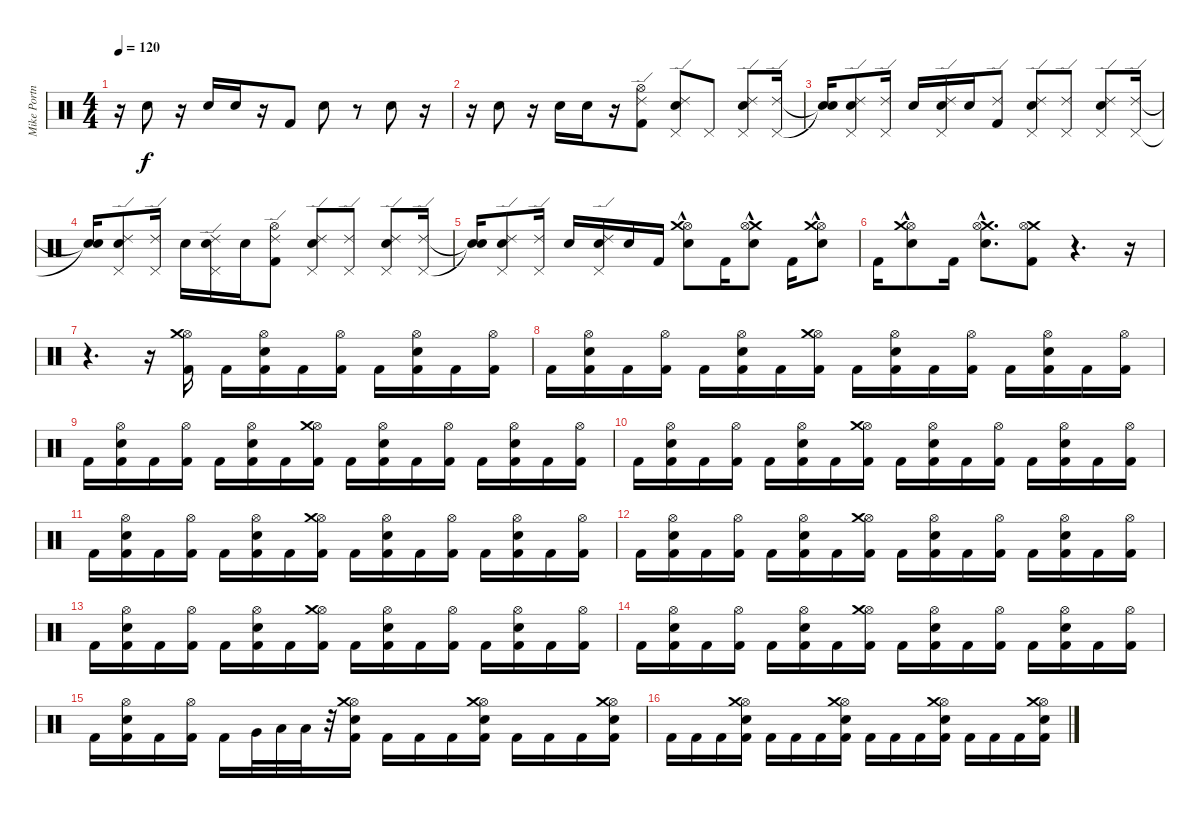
\track ("Mike Portnoy - Batterie" "Mike Portn") {instrument percussion}
\staff {score}
\articulation defaults
\ts (4 4)
\tempo 120
\clef neutral
\ks c
r.16{dy f} "Snare (hit) 2".8 r.16 "Snare (hit) 2".16 "Snare (hit) 2".16 r.16 "Kick (hit) 2".8 "Snare (hit) 2".8 r.8 "Snare (hit) 2".8 r.16 |
r.16 "Snare (hit) 2".8 r.16 "Snare (hit) 2".16 "Snare (hit) 2".16 r.16 ("Ride (edge) 2" "Kick (hit) 2" "Hi-Hat (open)").8 ("Pedal Hi-Hat (hit)" "Ride (edge) 2" "Snare (hit) 2").8 "Pedal Hi-Hat (hit)".8 ("Pedal Hi-Hat (hit)" "Ride (edge) 2" "Snare (hit) 2").8 ("Pedal Hi-Hat (hit)" "Ride (edge) 2").16 |
("Snare (hit)"{t} "Snare (hit)"{t}).16 ("Pedal Hi-Hat (hit)" "Ride (edge) 2" "Snare (hit) 2").8 ("Pedal Hi-Hat (hit)" "Ride (edge) 2").16 "Snare (hit) 2".16 ("Snare (hit) 2" "Pedal Hi-Hat (hit)" "Ride (edge) 2").16 "Snare (hit) 2".16 ("Ride (edge) 2" "Kick (hit) 2").8 ("Pedal Hi-Hat (hit)" "Ride (edge) 2" "Snare (hit) 2").8 ("Pedal Hi-Hat (hit)" "Ride (edge) 2").8 ("Pedal Hi-Hat (hit)" "Ride (edge) 2" "Snare (hit) 2").8 ("Pedal Hi-Hat (hit)" "Ride (edge) 2").16 |
("Snare (hit)"{t} "Snare (hit)"{t}).16 ("Pedal Hi-Hat (hit)" "Ride (edge) 2" "Snare (hit) 2").8 ("Pedal Hi-Hat (hit)" "Ride (edge) 2").16 "Snare (hit) 2".16 ("Snare (hit) 2" "Pedal Hi-Hat (hit)" "Ride (edge) 2").16 "Snare (hit) 2".16 ("Ride (edge) 2" "Kick (hit) 2" "Hi-Hat (open)").8 ("Pedal Hi-Hat (hit)" "Ride (edge) 2" "Snare (hit) 2").8 ("Pedal Hi-Hat (hit)" "Ride (edge) 2").8 ("Pedal Hi-Hat (hit)" "Ride (edge) 2" "Snare (hit) 2").8 ("Pedal Hi-Hat (hit)" "Ride (edge) 2").16 |
("Snare (hit)"{t} "Snare (hit)"{t}).16 ("Pedal Hi-Hat (hit)" "Ride (edge) 2" "Snare (hit) 2").8 ("Pedal Hi-Hat (hit)" "Ride (edge) 2").16 "Snare (hit) 2".16 ("Snare (hit) 2" "Pedal Hi-Hat (hit)" "Ride (edge) 2").16 "Snare (hit) 2".16 "Kick (hit) 2".16 ("Electric Snare (hit)"{hac} "Hi-Hat (open)"{hac} "Crash medium (hit)"{hac}).8 "Kick (hit) 2".16 ("Electric Snare (hit)"{hac} "Crash medium (hit)"{hac} "Hi-Hat (open)"{hac}).8 "Kick (hit) 2".16 ("Electric Snare (hit)"{hac} "Hi-Hat (open)"{hac} "Crash medium (hit)"{hac}).8 |
"Kick (hit) 2".16 ("Electric Snare (hit)"{hac} "Hi-Hat (open)"{hac} "Crash medium (hit)"{hac}).8 "Kick (hit) 2".16 ("Crash medium (hit)"{hac} "Hi-Hat (open)"{hac} "Electric Snare (hit)"{hac}).8{d} ("Crash medium (hit)" "Hi-Hat (open)" "Kick (hit) 2").8 r.4{d} r.16 |
r.4{d} r.16 ("Hi-Hat (open)" "Crash medium (hit)" "Kick (hit) 2").16 "Kick (hit) 2".16 ("Electric Snare (hit)" "Hi-Hat (open)" "Kick (hit) 2").16 "Kick (hit) 2".16 ("Hi-Hat (open)" "Kick (hit) 2").16 "Kick (hit) 2".16 ("Electric Snare (hit)" "Hi-Hat (open)" "Kick (hit) 2").16 "Kick (hit) 2".16 ("Hi-Hat (open)" "Kick (hit) 2").16 |
"Kick (hit) 2".16 ("Electric Snare (hit)" "Hi-Hat (open)" "Kick (hit) 2").16 "Kick (hit) 2".16 ("Hi-Hat (open)" "Kick (hit) 2").16 "Kick (hit) 2".16 ("Electric Snare (hit)" "Hi-Hat (open)" "Kick (hit) 2").16 "Kick (hit) 2".16 ("Hi-Hat (open)" "Crash medium (hit)" "Kick (hit) 2").16 "Kick (hit) 2".16 ("Electric Snare (hit)" "Hi-Hat (open)" "Kick (hit) 2").16 "Kick (hit) 2".16 ("Hi-Hat (open)" "Kick (hit) 2").16 "Kick (hit) 2".16 ("Electric Snare (hit)" "Hi-Hat (open)" "Kick (hit) 2").16 "Kick (hit) 2".16 ("Hi-Hat (open)" "Kick (hit) 2").16 |
"Kick (hit) 2".16 ("Electric Snare (hit)" "Hi-Hat (open)" "Kick (hit) 2").16 "Kick (hit) 2".16 ("Hi-Hat (open)" "Kick (hit) 2").16 "Kick (hit) 2".16 ("Electric Snare (hit)" "Hi-Hat (open)" "Kick (hit) 2").16 "Kick (hit) 2".16 ("Hi-Hat (open)" "Crash medium (hit)" "Kick (hit) 2").16 "Kick (hit) 2".16 ("Electric Snare (hit)" "Hi-Hat (open)" "Kick (hit) 2").16 "Kick (hit) 2".16 ("Hi-Hat (open)" "Kick (hit) 2").16 "Kick (hit) 2".16 ("Electric Snare (hit)" "Hi-Hat (open)" "Kick (hit) 2").16 "Kick (hit) 2".16 ("Hi-Hat (open)" "Kick (hit) 2").16 |
"Kick (hit) 2".16 ("Electric Snare (hit)" "Hi-Hat (open)" "Kick (hit) 2").16 "Kick (hit) 2".16 ("Hi-Hat (open)" "Kick (hit) 2").16 "Kick (hit) 2".16 ("Electric Snare (hit)" "Hi-Hat (open)" "Kick (hit) 2").16 "Kick (hit) 2".16 ("Hi-Hat (open)" "Crash medium (hit)" "Kick (hit) 2").16 "Kick (hit) 2".16 ("Electric Snare (hit)" "Hi-Hat (open)" "Kick (hit) 2").16 "Kick (hit) 2".16 ("Hi-Hat (open)" "Kick (hit) 2").16 "Kick (hit) 2".16 ("Electric Snare (hit)" "Hi-Hat (open)" "Kick (hit) 2").16 "Kick (hit) 2".16 ("Hi-Hat (open)" "Kick (hit) 2").16 |
"Kick (hit) 2".16 ("Electric Snare (hit)" "Hi-Hat (open)" "Kick (hit) 2").16 "Kick (hit) 2".16 ("Hi-Hat (open)" "Kick (hit) 2").16 "Kick (hit) 2".16 ("Electric Snare (hit)" "Hi-Hat (open)" "Kick (hit) 2").16 "Kick (hit) 2".16 ("Hi-Hat (open)" "Crash medium (hit)" "Kick (hit) 2").16 "Kick (hit) 2".16 ("Electric Snare (hit)" "Hi-Hat (open)" "Kick (hit) 2").16 "Kick (hit) 2".16 ("Hi-Hat (open)" "Kick (hit) 2").16 "Kick (hit) 2".16 ("Electric Snare (hit)" "Hi-Hat (open)" "Kick (hit) 2").16 "Kick (hit) 2".16 ("Hi-Hat (open)" "Kick (hit) 2").16 |
"Kick (hit) 2".16 ("Electric Snare (hit)" "Hi-Hat (open)" "Kick (hit) 2").16 "Kick (hit) 2".16 ("Hi-Hat (open)" "Kick (hit) 2").16 "Kick (hit) 2".16 ("Electric Snare (hit)" "Hi-Hat (open)" "Kick (hit) 2").16 "Kick (hit) 2".16 ("Hi-Hat (open)" "Crash medium (hit)" "Kick (hit) 2").16 "Kick (hit) 2".16 ("Electric Snare (hit)" "Hi-Hat (open)" "Kick (hit) 2").16 "Kick (hit) 2".16 ("Hi-Hat (open)" "Kick (hit) 2").16 "Kick (hit) 2".16 ("Electric Snare (hit)" "Hi-Hat (open)" "Kick (hit) 2").16 "Kick (hit) 2".16 ("Hi-Hat (open)" "Kick (hit) 2").16 |
"Kick (hit) 2".16 ("Electric Snare (hit)" "Hi-Hat (open)" "Kick (hit) 2").16 "Kick (hit) 2".16 ("Hi-Hat (open)" "Kick (hit) 2").16 "Kick (hit) 2".16 ("Electric Snare (hit)" "Hi-Hat (open)" "Kick (hit) 2").16 "Kick (hit) 2".16 ("Hi-Hat (open)" "Crash medium (hit)" "Kick (hit) 2").16 "Kick (hit) 2".16 ("Electric Snare (hit)" "Hi-Hat (open)" "Kick (hit) 2").16 "Kick (hit) 2".16 ("Hi-Hat (open)" "Kick (hit) 2").16 "Kick (hit) 2".16 ("Electric Snare (hit)" "Hi-Hat (open)" "Kick (hit) 2").16 "Kick (hit) 2".16 ("Hi-Hat (open)" "Kick (hit) 2").16 |
"Kick (hit) 2".16 ("Electric Snare (hit)" "Hi-Hat (open)" "Kick (hit) 2").16 "Kick (hit) 2".16 ("Hi-Hat (open)" "Kick (hit) 2").16 "Kick (hit) 2".16 ("Electric Snare (hit)" "Hi-Hat (open)" "Kick (hit) 2").16 "Kick (hit) 2".16 ("Hi-Hat (open)" "Crash medium (hit)" "Kick (hit) 2").16 "Kick (hit) 2".16 ("Electric Snare (hit)" "Hi-Hat (open)" "Kick (hit) 2").16 "Kick (hit) 2".16 ("Hi-Hat (open)" "Kick (hit) 2").16 "Kick (hit) 2".16 ("Electric Snare (hit)" "Hi-Hat (open)" "Kick (hit) 2").16 "Kick (hit) 2".16 ("Hi-Hat (open)" "Kick (hit) 2").16 |
"Kick (hit) 2".16 ("Electric Snare (hit)" "Hi-Hat (open)" "Kick (hit) 2").16 "Kick (hit) 2".16 ("Hi-Hat (open)" "Kick (hit) 2").16 "Kick (hit) 2".16 "Very Low Tom (hit)".32 "Low Floor Tom (hit)".32 "Low Floor Tom (hit)".32 r.32 ("Electric Snare (hit)" "Hi-Hat (open)" "Crash medium (hit)" "Kick (hit) 2").16 "Kick (hit) 2".16 "Kick (hit) 2".16 "Kick (hit) 2".16 ("Electric Snare (hit)" "Hi-Hat (open)" "Crash medium (hit)" "Kick (hit) 2").16 "Kick (hit) 2".16 "Kick (hit) 2".16 "Kick (hit) 2".16 ("Electric Snare (hit)" "Hi-Hat (open)" "Crash medium (hit)" "Kick (hit) 2").16 |
"Kick (hit) 2".16 "Kick (hit) 2".16 "Kick (hit) 2".16 ("Electric Snare (hit)" "Hi-Hat (open)" "Crash medium (hit)" "Kick (hit) 2").16 "Kick (hit) 2".16 "Kick (hit) 2".16 "Kick (hit) 2".16 ("Electric Snare (hit)" "Hi-Hat (open)" "Crash medium (hit)" "Kick (hit) 2").16 "Kick (hit) 2".16 "Kick (hit) 2".16 "Kick (hit) 2".16 ("Electric Snare (hit)" "Hi-Hat (open)" "Crash medium (hit)" "Kick (hit) 2").16 "Kick (hit) 2".16 "Kick (hit) 2".16 "Kick (hit) 2".16 ("Electric Snare (hit)" "Hi-Hat (open)" "Crash medium (hit)" "Kick (hit) 2").16
